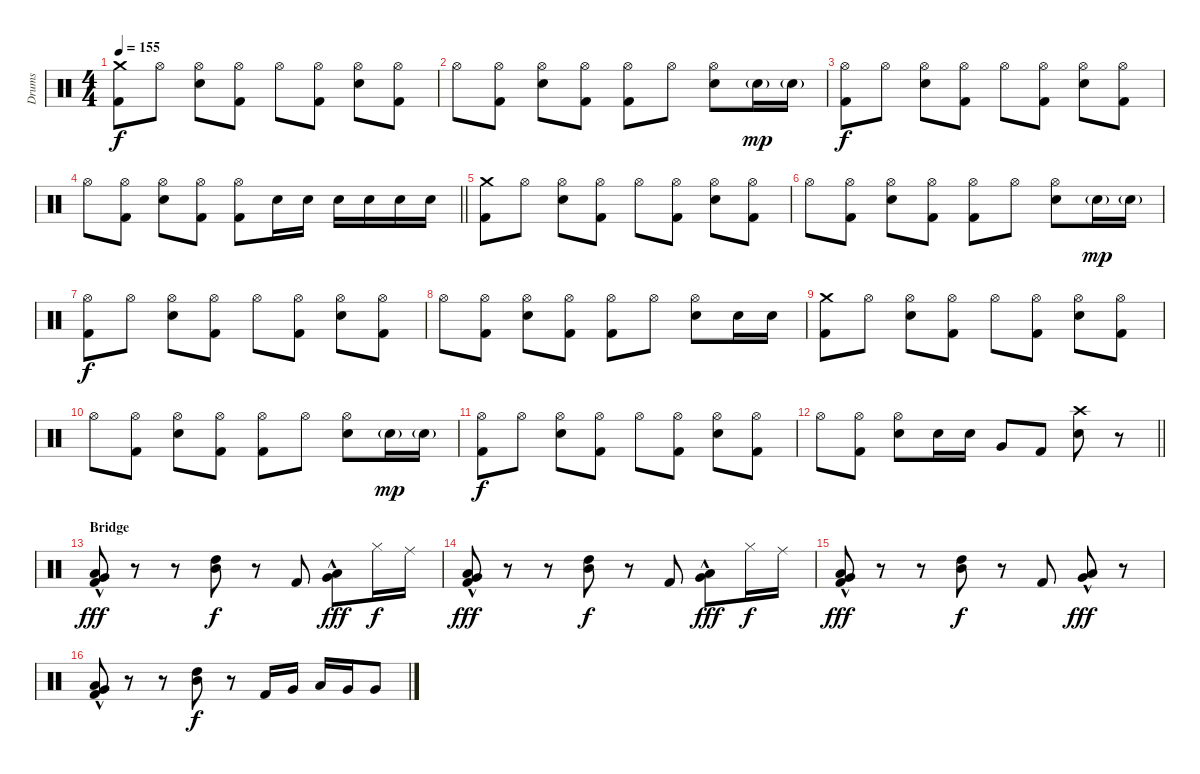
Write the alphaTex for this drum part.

\track ("Drums" "Drums") {instrument percussion}
\staff {score}
\articulation defaults
\ts (4 4)
\tempo 155
\clef neutral
\ks c
("Crash medium (hit)" "Kick (hit) 2").8{dy f} "Hi-Hat (open)".8 ("Hi-Hat (open)" "Snare (hit) 2").8 ("Hi-Hat (open)" "Kick (hit) 2").8 "Hi-Hat (open)".8 ("Hi-Hat (open)" "Kick (hit) 2").8 ("Hi-Hat (open)" "Snare (hit) 2").8 ("Hi-Hat (open)" "Kick (hit) 2").8 |
"Hi-Hat (open)".8 ("Hi-Hat (open)" "Kick (hit) 2").8 ("Hi-Hat (open)" "Snare (hit) 2").8 ("Hi-Hat (open)" "Kick (hit) 2").8 ("Hi-Hat (open)" "Kick (hit) 2").8 "Hi-Hat (open)".8 ("Hi-Hat (open)" "Snare (hit) 2").8 "Snare (hit) 2"{g}.16{dy mp} "Snare (hit) 2"{g}.16 |
("Hi-Hat (open)" "Kick (hit) 2").8{dy f} "Hi-Hat (open)".8 ("Hi-Hat (open)" "Snare (hit) 2").8 ("Hi-Hat (open)" "Kick (hit) 2").8 "Hi-Hat (open)".8 ("Hi-Hat (open)" "Kick (hit) 2").8 ("Hi-Hat (open)" "Snare (hit) 2").8 ("Hi-Hat (open)" "Kick (hit) 2").8 |
\barLineRight lightlight "Hi-Hat (open)".8
("Hi-Hat (open)" "Kick (hit) 2").8 ("Hi-Hat (open)" "Snare (hit) 2").8 ("Hi-Hat (open)" "Kick (hit) 2").8 ("Hi-Hat (open)" "Kick (hit) 2").8 "Snare (hit) 2".16 "Snare (hit) 2".16 "Snare (hit) 2".16 "Snare (hit) 2".16 "Snare (hit) 2".16 "Snare (hit) 2".16 |
("Crash medium (hit)" "Kick (hit) 2").8 "Hi-Hat (open)".8 ("Hi-Hat (open)" "Snare (hit) 2").8 ("Hi-Hat (open)" "Kick (hit) 2").8 "Hi-Hat (open)".8 ("Hi-Hat (open)" "Kick (hit) 2").8 ("Hi-Hat (open)" "Snare (hit) 2").8 ("Hi-Hat (open)" "Kick (hit) 2").8 |
"Hi-Hat (open)".8 ("Hi-Hat (open)" "Kick (hit) 2").8 ("Hi-Hat (open)" "Snare (hit) 2").8 ("Hi-Hat (open)" "Kick (hit) 2").8 ("Hi-Hat (open)" "Kick (hit) 2").8 "Hi-Hat (open)".8 ("Hi-Hat (open)" "Snare (hit) 2").8 "Snare (hit) 2"{g}.16{dy mp} "Snare (hit) 2"{g}.16 |
("Hi-Hat (open)" "Kick (hit) 2").8{dy f} "Hi-Hat (open)".8 ("Hi-Hat (open)" "Snare (hit) 2").8 ("Hi-Hat (open)" "Kick (hit) 2").8 "Hi-Hat (open)".8 ("Hi-Hat (open)" "Kick (hit) 2").8 ("Hi-Hat (open)" "Snare (hit) 2").8 ("Hi-Hat (open)" "Kick (hit) 2").8 |
"Hi-Hat (open)".8 ("Hi-Hat (open)" "Kick (hit) 2").8 ("Hi-Hat (open)" "Snare (hit) 2").8 ("Hi-Hat (open)" "Kick (hit) 2").8 ("Hi-Hat (open)" "Kick (hit) 2").8 "Hi-Hat (open)".8 ("Hi-Hat (open)" "Snare (hit) 2").8 "Snare (hit) 2".16 "Snare (hit) 2".16 |
("Crash medium (hit)" "Kick (hit) 2").8 "Hi-Hat (open)".8 ("Hi-Hat (open)" "Snare (hit) 2").8 ("Hi-Hat (open)" "Kick (hit) 2").8 "Hi-Hat (open)".8 ("Hi-Hat (open)" "Kick (hit) 2").8 ("Hi-Hat (open)" "Snare (hit) 2").8 ("Hi-Hat (open)" "Kick (hit) 2").8 |
"Hi-Hat (open)".8 ("Hi-Hat (open)" "Kick (hit) 2").8 ("Hi-Hat (open)" "Snare (hit) 2").8 ("Hi-Hat (open)" "Kick (hit) 2").8 ("Hi-Hat (open)" "Kick (hit) 2").8 "Hi-Hat (open)".8 ("Hi-Hat (open)" "Snare (hit) 2").8 "Snare (hit) 2"{g}.16{dy mp} "Snare (hit) 2"{g}.16 |
("Hi-Hat (open)" "Kick (hit) 2").8{dy f} "Hi-Hat (open)".8 ("Hi-Hat (open)" "Snare (hit) 2").8 ("Hi-Hat (open)" "Kick (hit) 2").8 "Hi-Hat (open)".8 ("Hi-Hat (open)" "Kick (hit) 2").8 ("Hi-Hat (open)" "Snare (hit) 2").8 ("Hi-Hat (open)" "Kick (hit) 2").8 |
\barLineRight lightlight "Hi-Hat (open)".8
("Hi-Hat (open)" "Kick (hit) 2").8 ("Hi-Hat (open)" "Snare (hit) 2").8 "Snare (hit) 2".16 "Snare (hit) 2".16 "Very Low Tom (hit)".8 "Kick (hit) 2".8 ("Crash high (hit)" "Snare (hit) 2").8 r.8 |
\section ("" "Bridge")
("Low Tom (hit)"{hac} "Very Low Tom (hit)" "Kick (hit) 2").8{dy fff} r.8 r.8 ("High Tom (hit)" "Mid Tom (hit)").8{dy f} r.8 "Kick (hit) 2".8 ("Low Tom (hit)"{hac} "Very Low Tom (hit)").8{dy fff} "Hi-Hat (closed)".16{dy f} "Ride (middle)".16 |
("Low Tom (hit)"{hac} "Very Low Tom (hit)" "Kick (hit) 2").8{dy fff} r.8 r.8 ("High Tom (hit)" "Mid Tom (hit)").8{dy f} r.8 "Kick (hit) 2".8 ("Low Tom (hit)"{hac} "Very Low Tom (hit)").8{dy fff} "Hi-Hat (closed)".16{dy f} "Ride (middle)".16 |
("Low Tom (hit)"{hac} "Very Low Tom (hit)" "Kick (hit) 2").8{dy fff} r.8 r.8 ("High Tom (hit)" "Mid Tom (hit)").8{dy f} r.8 "Kick (hit) 2".8 ("Low Tom (hit)"{hac} "Very Low Tom (hit)").8{dy fff} r.8 |
("Low Tom (hit)"{hac} "Very Low Tom (hit)" "Kick (hit) 2").8 r.8 r.8 ("High Tom (hit)" "Mid Tom (hit)").8{dy f} r.8 "Kick (hit) 2".16 "Very Low Tom (hit)".16 "Low Tom (hit)".16 "Very Low Tom (hit)".16 "Very Low Tom (hit)".8
